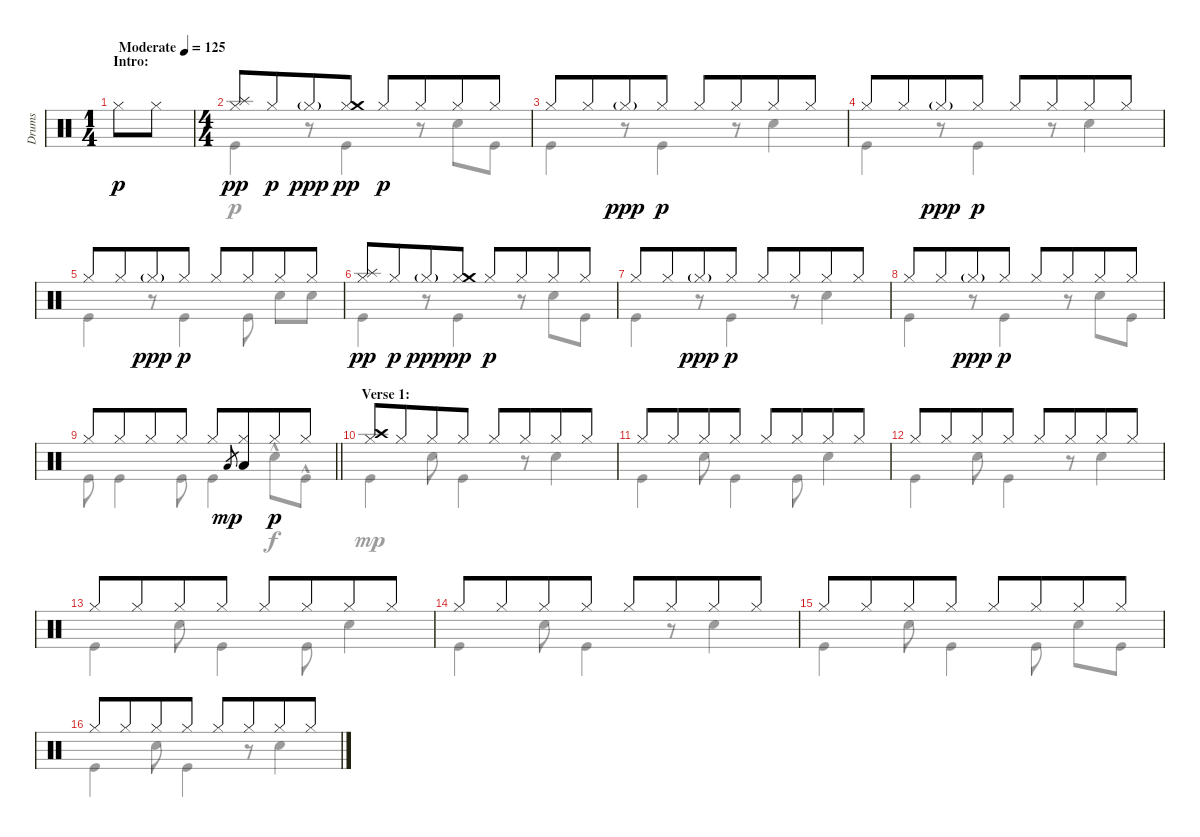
\track ("Drums" "Drums") {instrument percussion}
\staff {score}
\articulation defaults
\voice
\ts (1 4)
\section ("" "Intro:")
\tempo (125 "Moderate")
\clef neutral
\ks c "Hi-Hat (closed)".8{dy p} "Hi-Hat (closed)".8
|
\ts (4 4)
("Hi-Hat (closed)" "Splash (hit)").8{dy pp} "Hi-Hat (closed)".8{dy p beam merge} "Hi-Hat (closed)"{g}.8{dy ppp} ("Hi-Hat (closed)" "Crash medium (hit)").8{dy pp} "Hi-Hat (closed)".8{dy p} "Hi-Hat (closed)".8{beam merge} "Hi-Hat (closed)".8 "Hi-Hat (closed)".8 |
"Hi-Hat (closed)".8 "Hi-Hat (closed)".8{beam merge} "Hi-Hat (closed)"{g}.8{dy ppp} "Hi-Hat (closed)".8{dy p} "Hi-Hat (closed)".8 "Hi-Hat (closed)".8{beam merge} "Hi-Hat (closed)".8 "Hi-Hat (closed)".8 |
"Hi-Hat (closed)".8 "Hi-Hat (closed)".8{beam merge} "Hi-Hat (closed)"{g}.8{dy ppp} "Hi-Hat (closed)".8{dy p} "Hi-Hat (closed)".8 "Hi-Hat (closed)".8{beam merge} "Hi-Hat (closed)".8 "Hi-Hat (closed)".8 |
"Hi-Hat (closed)".8 "Hi-Hat (closed)".8{beam merge} "Hi-Hat (closed)"{g}.8{dy ppp} "Hi-Hat (closed)".8{dy p} "Hi-Hat (closed)".8 "Hi-Hat (closed)".8{beam merge} "Hi-Hat (closed)".8 "Hi-Hat (closed)".8 |
("Hi-Hat (closed)" "Splash (hit)").8{dy pp} "Hi-Hat (closed)".8{dy p beam merge} "Hi-Hat (closed)"{g}.8{dy ppp} ("Hi-Hat (closed)" "Crash medium (hit)").8{dy pp} "Hi-Hat (closed)".8{dy p} "Hi-Hat (closed)".8{beam merge} "Hi-Hat (closed)".8 "Hi-Hat (closed)".8 |
"Hi-Hat (closed)".8 "Hi-Hat (closed)".8{beam merge} "Hi-Hat (closed)"{g}.8{dy ppp} "Hi-Hat (closed)".8{dy p} "Hi-Hat (closed)".8 "Hi-Hat (closed)".8{beam merge} "Hi-Hat (closed)".8 "Hi-Hat (closed)".8 |
"Hi-Hat (closed)".8 "Hi-Hat (closed)".8{beam merge} "Hi-Hat (closed)"{g}.8{dy ppp} "Hi-Hat (closed)".8{dy p} "Hi-Hat (closed)".8 "Hi-Hat (closed)".8{beam merge} "Hi-Hat (closed)".8 "Hi-Hat (closed)".8 |
\barLineRight lightlight "Hi-Hat (closed)".8 "Hi-Hat (closed)".8{beam merge} "Hi-Hat (closed)".8 "Hi-Hat (closed)".8 "Hi-Hat (closed)".8 "Low Tom (hit)"{h}.8{gr dy mp}
("Hi-Hat (closed)" "Low Tom (hit)").8{beam merge} "Hi-Hat (closed)".8{dy p} "Hi-Hat (closed)".8 |
\section ("" "Verse 1:")
("Hi-Hat (closed)" "Crash high (hit)").8 "Hi-Hat (closed)".8{beam merge} "Hi-Hat (closed)".8 "Hi-Hat (closed)".8 "Hi-Hat (closed)".8 "Hi-Hat (closed)".8{beam merge} "Hi-Hat (closed)".8 "Hi-Hat (closed)".8 |
"Hi-Hat (closed)".8 "Hi-Hat (closed)".8{beam merge} "Hi-Hat (closed)".8 "Hi-Hat (closed)".8 "Hi-Hat (closed)".8 "Hi-Hat (closed)".8{beam merge} "Hi-Hat (closed)".8 "Hi-Hat (closed)".8 |
"Hi-Hat (closed)".8 "Hi-Hat (closed)".8{beam merge} "Hi-Hat (closed)".8 "Hi-Hat (closed)".8 "Hi-Hat (closed)".8 "Hi-Hat (closed)".8{beam merge} "Hi-Hat (closed)".8 "Hi-Hat (closed)".8 |
"Hi-Hat (closed)".8 "Hi-Hat (closed)".8{beam merge} "Hi-Hat (closed)".8 "Hi-Hat (closed)".8 "Hi-Hat (closed)".8 "Hi-Hat (closed)".8{beam merge} "Hi-Hat (closed)".8 "Hi-Hat (closed)".8 |
"Hi-Hat (closed)".8 "Hi-Hat (closed)".8{beam merge} "Hi-Hat (closed)".8 "Hi-Hat (closed)".8 "Hi-Hat (closed)".8 "Hi-Hat (closed)".8{beam merge} "Hi-Hat (closed)".8 "Hi-Hat (closed)".8 |
"Hi-Hat (closed)".8 "Hi-Hat (closed)".8{beam merge} "Hi-Hat (closed)".8 "Hi-Hat (closed)".8 "Hi-Hat (closed)".8 "Hi-Hat (closed)".8{beam merge} "Hi-Hat (closed)".8 "Hi-Hat (closed)".8 |
"Hi-Hat (closed)".8 "Hi-Hat (closed)".8{beam merge} "Hi-Hat (closed)".8 "Hi-Hat (closed)".8 "Hi-Hat (closed)".8 "Hi-Hat (closed)".8{beam merge} "Hi-Hat (closed)".8 "Hi-Hat (closed)".8
\voice
\clef neutral
\ottava regular
\simile none
\ks c
|
"Kick (hit)".4 r.8 "Kick (hit)".4 r.8 "Snare (hit) 2".8 "Kick (hit)".8 |
"Kick (hit)".4 r.8 "Kick (hit)".4 r.8 "Snare (hit) 2".4 |
"Kick (hit)".4 r.8 "Kick (hit)".4 r.8 "Snare (hit) 2".4 |
"Kick (hit)".4 r.8 "Kick (hit)".4 "Kick (hit)".8 "Snare (hit) 2".8 "Snare (hit) 2".8 |
"Kick (hit)".4 r.8 "Kick (hit)".4 r.8 "Snare (hit) 2".8 "Kick (hit)".8 |
"Kick (hit)".4 r.8 "Kick (hit)".4 r.8 "Snare (hit) 2".4 |
"Kick (hit)".4 r.8 "Kick (hit)".4 r.8 "Snare (hit) 2".8 "Kick (hit)".8 |
\barLineRight lightlight "Kick (hit)".8 "Kick (hit)".4 "Kick (hit)".8 "Kick (hit)".4 "Snare (hit) 2"{hac}.8{dy f} "Kick (hit)"{hac}.8
|
"Kick (hit)".4{dy mp} "Snare (hit) 2".8 "Kick (hit)".4 r.8 "Snare (hit) 2".4 |
"Kick (hit)".4 "Snare (hit) 2".8 "Kick (hit)".4 "Kick (hit)".8 "Snare (hit) 2".4 |
"Kick (hit)".4 "Snare (hit) 2".8 "Kick (hit)".4 r.8 "Snare (hit) 2".4 |
"Kick (hit)".4 "Snare (hit) 2".8 "Kick (hit)".4 "Kick (hit)".8 "Snare (hit) 2".4 |
"Kick (hit)".4 "Snare (hit) 2".8 "Kick (hit)".4 r.8 "Snare (hit) 2".4 |
"Kick (hit)".4 "Snare (hit) 2".8 "Kick (hit)".4 "Kick (hit)".8 "Snare (hit) 2".8 "Kick (hit)".8 |
"Kick (hit)".4 "Snare (hit) 2".8 "Kick (hit)".4 r.8 "Snare (hit) 2".4
